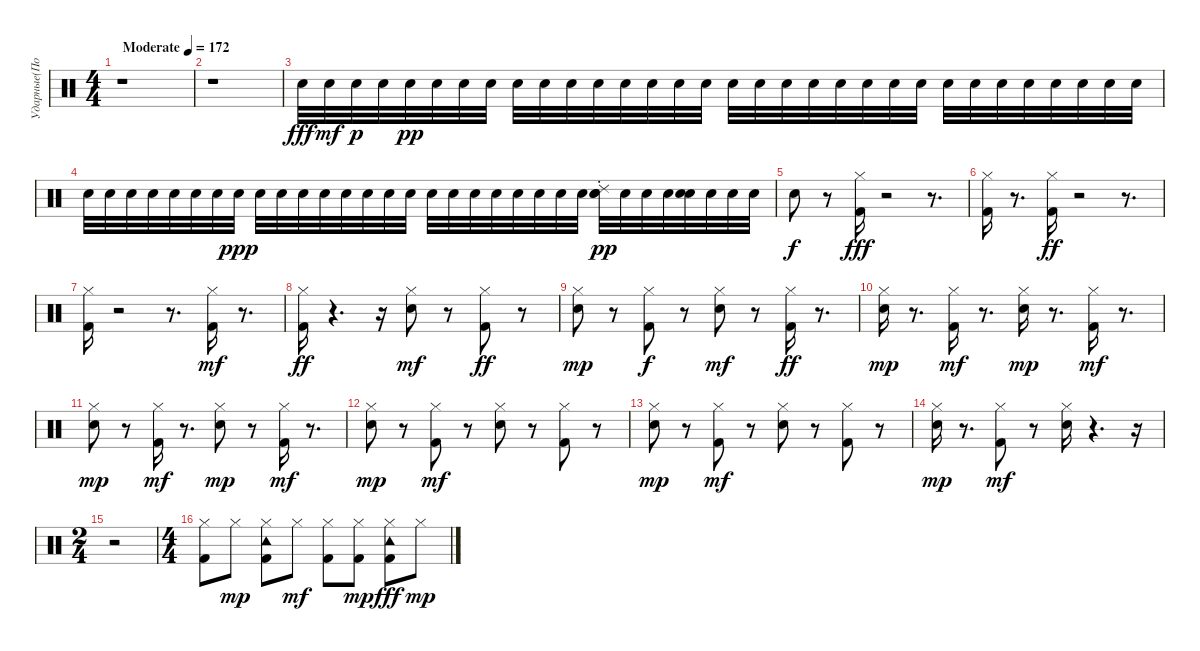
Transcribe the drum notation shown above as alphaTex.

\track ("Ударные(Потапкин)" "Ударные(По") {instrument percussion}
\staff {score}
\articulation defaults
\ts (4 4)
\tempo (172 "Moderate")
\clef neutral
\ks c
r.1{dy fff} |
r.1 |
"Snare (hit) 2".32 "Snare (hit) 2".32{dy mf} "Snare (hit) 2".32{dy p} "Snare (hit) 2".32 "Snare (hit) 2".32{dy pp} "Snare (hit) 2".32 "Snare (hit) 2".32 "Snare (hit) 2".32 "Snare (hit) 2".32 "Snare (hit) 2".32 "Snare (hit) 2".32 "Snare (hit) 2".32 "Snare (hit) 2".32 "Snare (hit) 2".32 "Snare (hit) 2".32 "Snare (hit) 2".32 "Snare (hit) 2".32 "Snare (hit) 2".32 "Snare (hit) 2".32 "Snare (hit) 2".32 "Snare (hit) 2".32 "Snare (hit) 2".32 "Snare (hit) 2".32 "Snare (hit) 2".32 "Snare (hit) 2".32 "Snare (hit) 2".32 "Snare (hit) 2".32 "Snare (hit) 2".32 "Snare (hit) 2".32 "Snare (hit) 2".32 "Snare (hit) 2".32 "Snare (hit) 2".32 |
"Snare (hit) 2".32 "Snare (hit) 2".32 "Snare (hit) 2".32 "Snare (hit) 2".32 "Snare (hit) 2".32 "Snare (hit) 2".32 "Snare (hit) 2".32 "Snare (hit) 2".32{dy ppp} "Snare (hit) 2".32 "Snare (hit) 2".32 "Snare (hit) 2".32 "Snare (hit) 2".32 "Snare (hit) 2".32 "Snare (hit) 2".32 "Snare (hit) 2".32 "Snare (hit) 2".32 "Snare (hit) 2".32 "Snare (hit) 2".32 "Snare (hit) 2".32 "Snare (hit) 2".32 "Snare (hit) 2".32 "Snare (hit) 2".32 "Snare (hit) 2".32 "Snare (hit) 2".32 ("Ride (choke) 2" "Snare (hit) 2" "Snare (hit) 2").32{dy pp} "Snare (hit) 2".32 "Snare (hit) 2".32 "Snare (hit) 2".32 ("Snare (hit) 2" "Snare (hit) 2").32 "Snare (hit) 2".32 "Snare (hit) 2".32 "Snare (hit) 2".32 |
"Snare (hit) 2".8{dy f} r.8 ("Hi-Hat (closed)" "Kick (hit) 2").16{dy fff} r.2 r.8{d} |
("Hi-Hat (closed)" "Kick (hit) 2").16 r.8{d} ("Hi-Hat (closed)" "Kick (hit) 2").16{dy ff} r.2 r.8{d} |
("Hi-Hat (closed)" "Kick (hit) 2").16 r.2 r.8{d} ("Hi-Hat (closed)" "Kick (hit) 2").16{dy mf} r.8{d} |
("Hi-Hat (closed)" "Kick (hit) 2").16{dy ff} r.4{d} r.16 ("Snare (hit) 2" "Hi-Hat (closed)").8{dy mf} r.8 ("Kick (hit) 2" "Hi-Hat (closed)").8{dy ff} r.8 |
("Snare (hit) 2" "Hi-Hat (closed)").8{dy mp} r.8 ("Kick (hit) 2" "Hi-Hat (closed)").8{dy f} r.8 ("Hi-Hat (closed)" "Snare (hit) 2").8{dy mf} r.8 ("Kick (hit) 2" "Hi-Hat (closed)").16{dy ff} r.8{d} |
("Snare (hit) 2" "Hi-Hat (closed)").16{dy mp} r.8{d} ("Kick (hit) 2" "Hi-Hat (closed)").16{dy mf} r.8{d} ("Hi-Hat (closed)" "Snare (hit) 2").16{dy mp} r.8{d} ("Kick (hit) 2" "Hi-Hat (closed)").16{dy mf} r.8{d} |
("Hi-Hat (closed)" "Snare (hit) 2").8{dy mp} r.8 ("Hi-Hat (closed)" "Kick (hit) 2").16{dy mf} r.8{d} ("Hi-Hat (closed)" "Snare (hit) 2").8{dy mp} r.8 ("Kick (hit) 2" "Hi-Hat (closed)").16{dy mf} r.8{d} |
("Snare (hit) 2" "Hi-Hat (closed)").8{dy mp} r.8 ("Hi-Hat (closed)" "Kick (hit) 2").8{dy mf} r.8 ("Snare (hit) 2" "Hi-Hat (closed)").8 r.8 ("Kick (hit) 2" "Hi-Hat (closed)").8 r.8 |
("Snare (hit) 2" "Hi-Hat (closed)").8{dy mp} r.8 ("Kick (hit) 2" "Hi-Hat (closed)").8{dy mf} r.8 ("Hi-Hat (closed)" "Snare (hit) 2").8 r.8 ("Kick (hit) 2" "Hi-Hat (closed)").8 r.8 |
("Hi-Hat (closed)" "Snare (hit) 2").16{dy mp} r.8{d} ("Kick (hit) 2" "Hi-Hat (closed)").8{dy mf} r.8 ("Hi-Hat (closed)" "Snare (hit) 2").16 r.4{d} r.16 |
\ts (2 4)
r.2 |
\ts (4 4)
("Kick (hit) 2" "Hi-Hat (closed)").8 "Hi-Hat (closed)".8{dy mp} ("Kick (hit) 2" "Tambourine (hit)" "Hi-Hat (closed)").8 "Hi-Hat (closed)".8{dy mf} ("Kick (hit) 2" "Hi-Hat (closed)").8 ("Hi-Hat (closed)" "Kick (hit) 2").8{dy mp} ("Hi-Hat (closed)" "Kick (hit) 2" "Tambourine (hit)").8{dy fff} "Hi-Hat (closed)".8{dy mp}
